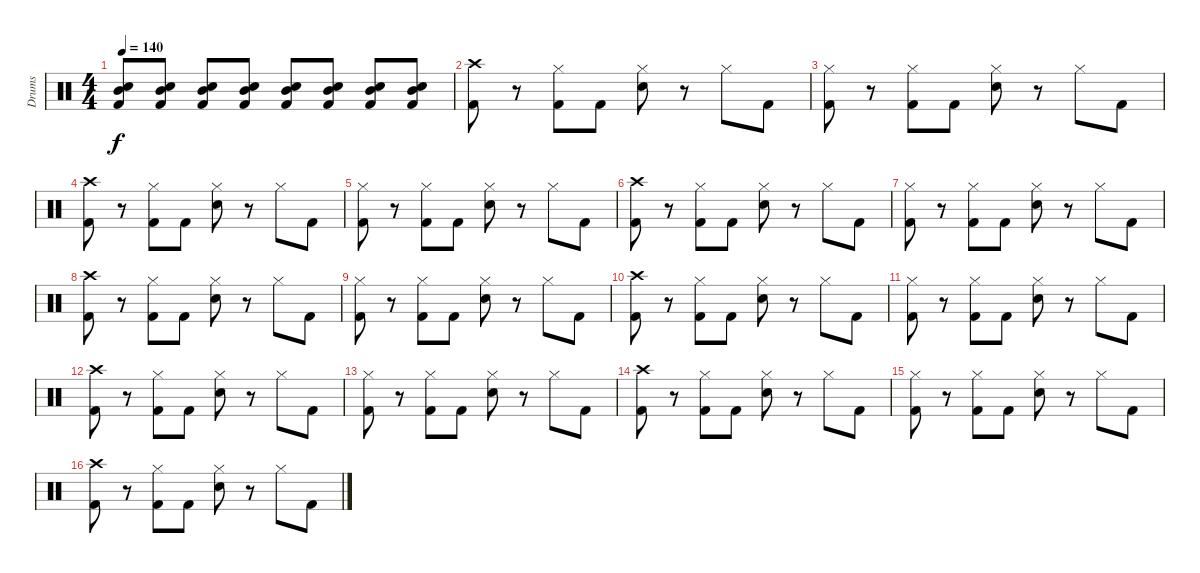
\track ("Drums" "Drums") {instrument percussion}
\staff {score}
\articulation defaults
\ts (4 4)
\tempo 140
\clef neutral
\ks c
("Mid Tom (hit)" "Snare (hit) 2" "Kick (hit) 2").8{dy f} ("Mid Tom (hit)" "Snare (hit) 2" "Kick (hit) 2").8 ("Mid Tom (hit)" "Snare (hit) 2" "Kick (hit) 2").8 ("Mid Tom (hit)" "Snare (hit) 2" "Kick (hit) 2").8 ("Mid Tom (hit)" "Snare (hit) 2" "Kick (hit) 2").8 ("Mid Tom (hit)" "Snare (hit) 2" "Kick (hit) 2").8 ("Mid Tom (hit)" "Snare (hit) 2" "Kick (hit) 2").8 ("Mid Tom (hit)" "Snare (hit) 2" "Kick (hit) 2").8 |
("Crash high (hit)" "Kick (hit) 2").8 r.8 ("Hi-Hat (closed)" "Kick (hit) 2").8 "Kick (hit) 2".8 ("Hi-Hat (closed)" "Snare (hit) 2").8 r.8 "Hi-Hat (closed)".8 "Kick (hit) 2".8 |
("Hi-Hat (closed)" "Kick (hit) 2").8 r.8 ("Hi-Hat (closed)" "Kick (hit) 2").8 "Kick (hit) 2".8 ("Hi-Hat (closed)" "Snare (hit) 2").8 r.8 "Hi-Hat (closed)".8 "Kick (hit) 2".8 |
("Crash high (hit)" "Kick (hit) 2").8 r.8 ("Hi-Hat (closed)" "Kick (hit) 2").8 "Kick (hit) 2".8 ("Hi-Hat (closed)" "Snare (hit) 2").8 r.8 "Hi-Hat (closed)".8 "Kick (hit) 2".8 |
("Hi-Hat (closed)" "Kick (hit) 2").8 r.8 ("Hi-Hat (closed)" "Kick (hit) 2").8 "Kick (hit) 2".8 ("Hi-Hat (closed)" "Snare (hit) 2").8 r.8 "Hi-Hat (closed)".8 "Kick (hit) 2".8 |
("Crash high (hit)" "Kick (hit) 2").8 r.8 ("Hi-Hat (closed)" "Kick (hit) 2").8 "Kick (hit) 2".8 ("Hi-Hat (closed)" "Snare (hit) 2").8 r.8 "Hi-Hat (closed)".8 "Kick (hit) 2".8 |
("Hi-Hat (closed)" "Kick (hit) 2").8 r.8 ("Hi-Hat (closed)" "Kick (hit) 2").8 "Kick (hit) 2".8 ("Hi-Hat (closed)" "Snare (hit) 2").8 r.8 "Hi-Hat (closed)".8 "Kick (hit) 2".8 |
("Crash high (hit)" "Kick (hit) 2").8 r.8 ("Hi-Hat (closed)" "Kick (hit) 2").8 "Kick (hit) 2".8 ("Hi-Hat (closed)" "Snare (hit) 2").8 r.8 "Hi-Hat (closed)".8 "Kick (hit) 2".8 |
("Hi-Hat (closed)" "Kick (hit) 2").8 r.8 ("Hi-Hat (closed)" "Kick (hit) 2").8 "Kick (hit) 2".8 ("Hi-Hat (closed)" "Snare (hit) 2").8 r.8 "Hi-Hat (closed)".8 "Kick (hit) 2".8 |
("Crash high (hit)" "Kick (hit) 2").8 r.8 ("Hi-Hat (closed)" "Kick (hit) 2").8 "Kick (hit) 2".8 ("Hi-Hat (closed)" "Snare (hit) 2").8 r.8 "Hi-Hat (closed)".8 "Kick (hit) 2".8 |
("Hi-Hat (closed)" "Kick (hit) 2").8 r.8 ("Hi-Hat (closed)" "Kick (hit) 2").8 "Kick (hit) 2".8 ("Hi-Hat (closed)" "Snare (hit) 2").8 r.8 "Hi-Hat (closed)".8 "Kick (hit) 2".8 |
("Crash high (hit)" "Kick (hit) 2").8 r.8 ("Hi-Hat (closed)" "Kick (hit) 2").8 "Kick (hit) 2".8 ("Hi-Hat (closed)" "Snare (hit) 2").8 r.8 "Hi-Hat (closed)".8 "Kick (hit) 2".8 |
("Hi-Hat (closed)" "Kick (hit) 2").8 r.8 ("Hi-Hat (closed)" "Kick (hit) 2").8 "Kick (hit) 2".8 ("Hi-Hat (closed)" "Snare (hit) 2").8 r.8 "Hi-Hat (closed)".8 "Kick (hit) 2".8 |
("Crash high (hit)" "Kick (hit) 2").8 r.8 ("Hi-Hat (closed)" "Kick (hit) 2").8 "Kick (hit) 2".8 ("Hi-Hat (closed)" "Snare (hit) 2").8 r.8 "Hi-Hat (closed)".8 "Kick (hit) 2".8 |
("Hi-Hat (closed)" "Kick (hit) 2").8 r.8 ("Hi-Hat (closed)" "Kick (hit) 2").8 "Kick (hit) 2".8 ("Hi-Hat (closed)" "Snare (hit) 2").8 r.8 "Hi-Hat (closed)".8 "Kick (hit) 2".8 |
("Crash high (hit)" "Kick (hit) 2").8 r.8 ("Hi-Hat (closed)" "Kick (hit) 2").8 "Kick (hit) 2".8 ("Hi-Hat (closed)" "Snare (hit) 2").8 r.8 "Hi-Hat (closed)".8 "Kick (hit) 2".8
